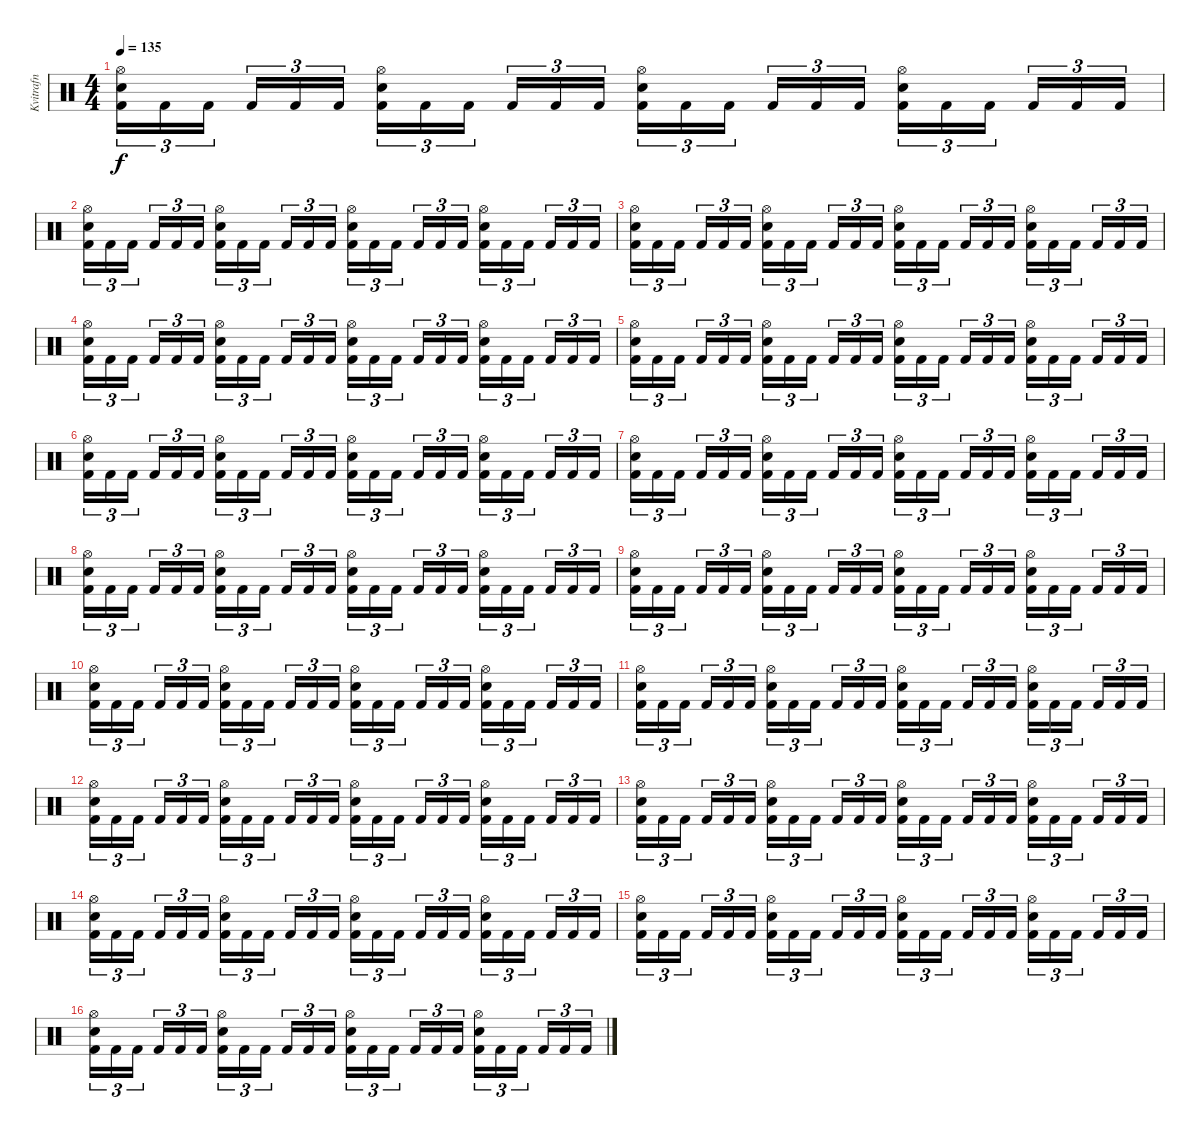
\track ("Kvitrafn" "Kvitrafn") {instrument percussion}
\staff {score}
\articulation defaults
\ts (4 4)
\tempo 135
\clef neutral
\ks c
("Hi-Hat (open)" "Electric Snare (hit)" "Kick (hit) 2").16{tu (3 2) dy f} "Kick (hit) 2".16{tu (3 2)} "Kick (hit) 2".16{tu (3 2) beam splitsecondary} "Kick (hit) 2".16{tu (3 2)} "Kick (hit) 2".16{tu (3 2)} "Kick (hit) 2".16{tu (3 2)} ("Hi-Hat (open)" "Electric Snare (hit)" "Kick (hit) 2").16{tu (3 2)} "Kick (hit) 2".16{tu (3 2)} "Kick (hit) 2".16{tu (3 2) beam splitsecondary} "Kick (hit) 2".16{tu (3 2)} "Kick (hit) 2".16{tu (3 2)} "Kick (hit) 2".16{tu (3 2)} ("Hi-Hat (open)" "Electric Snare (hit)" "Kick (hit) 2").16{tu (3 2)} "Kick (hit) 2".16{tu (3 2)} "Kick (hit) 2".16{tu (3 2) beam splitsecondary} "Kick (hit) 2".16{tu (3 2)} "Kick (hit) 2".16{tu (3 2)} "Kick (hit) 2".16{tu (3 2)} ("Hi-Hat (open)" "Electric Snare (hit)" "Kick (hit) 2").16{tu (3 2)} "Kick (hit) 2".16{tu (3 2)} "Kick (hit) 2".16{tu (3 2) beam splitsecondary} "Kick (hit) 2".16{tu (3 2)} "Kick (hit) 2".16{tu (3 2)} "Kick (hit) 2".16{tu (3 2)} |
("Hi-Hat (open)" "Electric Snare (hit)" "Kick (hit) 2").16{tu (3 2)} "Kick (hit) 2".16{tu (3 2)} "Kick (hit) 2".16{tu (3 2) beam splitsecondary} "Kick (hit) 2".16{tu (3 2)} "Kick (hit) 2".16{tu (3 2)} "Kick (hit) 2".16{tu (3 2)} ("Hi-Hat (open)" "Electric Snare (hit)" "Kick (hit) 2").16{tu (3 2)} "Kick (hit) 2".16{tu (3 2)} "Kick (hit) 2".16{tu (3 2) beam splitsecondary} "Kick (hit) 2".16{tu (3 2)} "Kick (hit) 2".16{tu (3 2)} "Kick (hit) 2".16{tu (3 2)} ("Hi-Hat (open)" "Electric Snare (hit)" "Kick (hit) 2").16{tu (3 2)} "Kick (hit) 2".16{tu (3 2)} "Kick (hit) 2".16{tu (3 2) beam splitsecondary} "Kick (hit) 2".16{tu (3 2)} "Kick (hit) 2".16{tu (3 2)} "Kick (hit) 2".16{tu (3 2)} ("Hi-Hat (open)" "Electric Snare (hit)" "Kick (hit) 2").16{tu (3 2)} "Kick (hit) 2".16{tu (3 2)} "Kick (hit) 2".16{tu (3 2) beam splitsecondary} "Kick (hit) 2".16{tu (3 2)} "Kick (hit) 2".16{tu (3 2)} "Kick (hit) 2".16{tu (3 2)} |
("Hi-Hat (open)" "Electric Snare (hit)" "Kick (hit) 2").16{tu (3 2)} "Kick (hit) 2".16{tu (3 2)} "Kick (hit) 2".16{tu (3 2) beam splitsecondary} "Kick (hit) 2".16{tu (3 2)} "Kick (hit) 2".16{tu (3 2)} "Kick (hit) 2".16{tu (3 2)} ("Hi-Hat (open)" "Electric Snare (hit)" "Kick (hit) 2").16{tu (3 2)} "Kick (hit) 2".16{tu (3 2)} "Kick (hit) 2".16{tu (3 2) beam splitsecondary} "Kick (hit) 2".16{tu (3 2)} "Kick (hit) 2".16{tu (3 2)} "Kick (hit) 2".16{tu (3 2)} ("Hi-Hat (open)" "Electric Snare (hit)" "Kick (hit) 2").16{tu (3 2)} "Kick (hit) 2".16{tu (3 2)} "Kick (hit) 2".16{tu (3 2) beam splitsecondary} "Kick (hit) 2".16{tu (3 2)} "Kick (hit) 2".16{tu (3 2)} "Kick (hit) 2".16{tu (3 2)} ("Hi-Hat (open)" "Electric Snare (hit)" "Kick (hit) 2").16{tu (3 2)} "Kick (hit) 2".16{tu (3 2)} "Kick (hit) 2".16{tu (3 2) beam splitsecondary} "Kick (hit) 2".16{tu (3 2)} "Kick (hit) 2".16{tu (3 2)} "Kick (hit) 2".16{tu (3 2)} |
("Hi-Hat (open)" "Electric Snare (hit)" "Kick (hit) 2").16{tu (3 2)} "Kick (hit) 2".16{tu (3 2)} "Kick (hit) 2".16{tu (3 2) beam splitsecondary} "Kick (hit) 2".16{tu (3 2)} "Kick (hit) 2".16{tu (3 2)} "Kick (hit) 2".16{tu (3 2)} ("Hi-Hat (open)" "Electric Snare (hit)" "Kick (hit) 2").16{tu (3 2)} "Kick (hit) 2".16{tu (3 2)} "Kick (hit) 2".16{tu (3 2) beam splitsecondary} "Kick (hit) 2".16{tu (3 2)} "Kick (hit) 2".16{tu (3 2)} "Kick (hit) 2".16{tu (3 2)} ("Hi-Hat (open)" "Electric Snare (hit)" "Kick (hit) 2").16{tu (3 2)} "Kick (hit) 2".16{tu (3 2)} "Kick (hit) 2".16{tu (3 2) beam splitsecondary} "Kick (hit) 2".16{tu (3 2)} "Kick (hit) 2".16{tu (3 2)} "Kick (hit) 2".16{tu (3 2)} ("Hi-Hat (open)" "Electric Snare (hit)" "Kick (hit) 2").16{tu (3 2)} "Kick (hit) 2".16{tu (3 2)} "Kick (hit) 2".16{tu (3 2) beam splitsecondary} "Kick (hit) 2".16{tu (3 2)} "Kick (hit) 2".16{tu (3 2)} "Kick (hit) 2".16{tu (3 2)} |
("Hi-Hat (open)" "Electric Snare (hit)" "Kick (hit) 2").16{tu (3 2)} "Kick (hit) 2".16{tu (3 2)} "Kick (hit) 2".16{tu (3 2) beam splitsecondary} "Kick (hit) 2".16{tu (3 2)} "Kick (hit) 2".16{tu (3 2)} "Kick (hit) 2".16{tu (3 2)} ("Hi-Hat (open)" "Electric Snare (hit)" "Kick (hit) 2").16{tu (3 2)} "Kick (hit) 2".16{tu (3 2)} "Kick (hit) 2".16{tu (3 2) beam splitsecondary} "Kick (hit) 2".16{tu (3 2)} "Kick (hit) 2".16{tu (3 2)} "Kick (hit) 2".16{tu (3 2)} ("Hi-Hat (open)" "Electric Snare (hit)" "Kick (hit) 2").16{tu (3 2)} "Kick (hit) 2".16{tu (3 2)} "Kick (hit) 2".16{tu (3 2) beam splitsecondary} "Kick (hit) 2".16{tu (3 2)} "Kick (hit) 2".16{tu (3 2)} "Kick (hit) 2".16{tu (3 2)} ("Hi-Hat (open)" "Electric Snare (hit)" "Kick (hit) 2").16{tu (3 2)} "Kick (hit) 2".16{tu (3 2)} "Kick (hit) 2".16{tu (3 2) beam splitsecondary} "Kick (hit) 2".16{tu (3 2)} "Kick (hit) 2".16{tu (3 2)} "Kick (hit) 2".16{tu (3 2)} |
("Hi-Hat (open)" "Electric Snare (hit)" "Kick (hit) 2").16{tu (3 2)} "Kick (hit) 2".16{tu (3 2)} "Kick (hit) 2".16{tu (3 2) beam splitsecondary} "Kick (hit) 2".16{tu (3 2)} "Kick (hit) 2".16{tu (3 2)} "Kick (hit) 2".16{tu (3 2)} ("Hi-Hat (open)" "Electric Snare (hit)" "Kick (hit) 2").16{tu (3 2)} "Kick (hit) 2".16{tu (3 2)} "Kick (hit) 2".16{tu (3 2) beam splitsecondary} "Kick (hit) 2".16{tu (3 2)} "Kick (hit) 2".16{tu (3 2)} "Kick (hit) 2".16{tu (3 2)} ("Hi-Hat (open)" "Electric Snare (hit)" "Kick (hit) 2").16{tu (3 2)} "Kick (hit) 2".16{tu (3 2)} "Kick (hit) 2".16{tu (3 2) beam splitsecondary} "Kick (hit) 2".16{tu (3 2)} "Kick (hit) 2".16{tu (3 2)} "Kick (hit) 2".16{tu (3 2)} ("Hi-Hat (open)" "Electric Snare (hit)" "Kick (hit) 2").16{tu (3 2)} "Kick (hit) 2".16{tu (3 2)} "Kick (hit) 2".16{tu (3 2) beam splitsecondary} "Kick (hit) 2".16{tu (3 2)} "Kick (hit) 2".16{tu (3 2)} "Kick (hit) 2".16{tu (3 2)} |
("Hi-Hat (open)" "Electric Snare (hit)" "Kick (hit) 2").16{tu (3 2)} "Kick (hit) 2".16{tu (3 2)} "Kick (hit) 2".16{tu (3 2) beam splitsecondary} "Kick (hit) 2".16{tu (3 2)} "Kick (hit) 2".16{tu (3 2)} "Kick (hit) 2".16{tu (3 2)} ("Hi-Hat (open)" "Electric Snare (hit)" "Kick (hit) 2").16{tu (3 2)} "Kick (hit) 2".16{tu (3 2)} "Kick (hit) 2".16{tu (3 2) beam splitsecondary} "Kick (hit) 2".16{tu (3 2)} "Kick (hit) 2".16{tu (3 2)} "Kick (hit) 2".16{tu (3 2)} ("Hi-Hat (open)" "Electric Snare (hit)" "Kick (hit) 2").16{tu (3 2)} "Kick (hit) 2".16{tu (3 2)} "Kick (hit) 2".16{tu (3 2) beam splitsecondary} "Kick (hit) 2".16{tu (3 2)} "Kick (hit) 2".16{tu (3 2)} "Kick (hit) 2".16{tu (3 2)} ("Hi-Hat (open)" "Electric Snare (hit)" "Kick (hit) 2").16{tu (3 2)} "Kick (hit) 2".16{tu (3 2)} "Kick (hit) 2".16{tu (3 2) beam splitsecondary} "Kick (hit) 2".16{tu (3 2)} "Kick (hit) 2".16{tu (3 2)} "Kick (hit) 2".16{tu (3 2)} |
("Hi-Hat (open)" "Electric Snare (hit)" "Kick (hit) 2").16{tu (3 2)} "Kick (hit) 2".16{tu (3 2)} "Kick (hit) 2".16{tu (3 2) beam splitsecondary} "Kick (hit) 2".16{tu (3 2)} "Kick (hit) 2".16{tu (3 2)} "Kick (hit) 2".16{tu (3 2)} ("Hi-Hat (open)" "Electric Snare (hit)" "Kick (hit) 2").16{tu (3 2)} "Kick (hit) 2".16{tu (3 2)} "Kick (hit) 2".16{tu (3 2) beam splitsecondary} "Kick (hit) 2".16{tu (3 2)} "Kick (hit) 2".16{tu (3 2)} "Kick (hit) 2".16{tu (3 2)} ("Hi-Hat (open)" "Electric Snare (hit)" "Kick (hit) 2").16{tu (3 2)} "Kick (hit) 2".16{tu (3 2)} "Kick (hit) 2".16{tu (3 2) beam splitsecondary} "Kick (hit) 2".16{tu (3 2)} "Kick (hit) 2".16{tu (3 2)} "Kick (hit) 2".16{tu (3 2)} ("Hi-Hat (open)" "Electric Snare (hit)" "Kick (hit) 2").16{tu (3 2)} "Kick (hit) 2".16{tu (3 2)} "Kick (hit) 2".16{tu (3 2) beam splitsecondary} "Kick (hit) 2".16{tu (3 2)} "Kick (hit) 2".16{tu (3 2)} "Kick (hit) 2".16{tu (3 2)} |
("Hi-Hat (open)" "Electric Snare (hit)" "Kick (hit) 2").16{tu (3 2)} "Kick (hit) 2".16{tu (3 2)} "Kick (hit) 2".16{tu (3 2) beam splitsecondary} "Kick (hit) 2".16{tu (3 2)} "Kick (hit) 2".16{tu (3 2)} "Kick (hit) 2".16{tu (3 2)} ("Hi-Hat (open)" "Electric Snare (hit)" "Kick (hit) 2").16{tu (3 2)} "Kick (hit) 2".16{tu (3 2)} "Kick (hit) 2".16{tu (3 2) beam splitsecondary} "Kick (hit) 2".16{tu (3 2)} "Kick (hit) 2".16{tu (3 2)} "Kick (hit) 2".16{tu (3 2)} ("Hi-Hat (open)" "Electric Snare (hit)" "Kick (hit) 2").16{tu (3 2)} "Kick (hit) 2".16{tu (3 2)} "Kick (hit) 2".16{tu (3 2) beam splitsecondary} "Kick (hit) 2".16{tu (3 2)} "Kick (hit) 2".16{tu (3 2)} "Kick (hit) 2".16{tu (3 2)} ("Hi-Hat (open)" "Electric Snare (hit)" "Kick (hit) 2").16{tu (3 2)} "Kick (hit) 2".16{tu (3 2)} "Kick (hit) 2".16{tu (3 2) beam splitsecondary} "Kick (hit) 2".16{tu (3 2)} "Kick (hit) 2".16{tu (3 2)} "Kick (hit) 2".16{tu (3 2)} |
("Hi-Hat (open)" "Electric Snare (hit)" "Kick (hit) 2").16{tu (3 2)} "Kick (hit) 2".16{tu (3 2)} "Kick (hit) 2".16{tu (3 2) beam splitsecondary} "Kick (hit) 2".16{tu (3 2)} "Kick (hit) 2".16{tu (3 2)} "Kick (hit) 2".16{tu (3 2)} ("Hi-Hat (open)" "Electric Snare (hit)" "Kick (hit) 2").16{tu (3 2)} "Kick (hit) 2".16{tu (3 2)} "Kick (hit) 2".16{tu (3 2) beam splitsecondary} "Kick (hit) 2".16{tu (3 2)} "Kick (hit) 2".16{tu (3 2)} "Kick (hit) 2".16{tu (3 2)} ("Hi-Hat (open)" "Electric Snare (hit)" "Kick (hit) 2").16{tu (3 2)} "Kick (hit) 2".16{tu (3 2)} "Kick (hit) 2".16{tu (3 2) beam splitsecondary} "Kick (hit) 2".16{tu (3 2)} "Kick (hit) 2".16{tu (3 2)} "Kick (hit) 2".16{tu (3 2)} ("Hi-Hat (open)" "Electric Snare (hit)" "Kick (hit) 2").16{tu (3 2)} "Kick (hit) 2".16{tu (3 2)} "Kick (hit) 2".16{tu (3 2) beam splitsecondary} "Kick (hit) 2".16{tu (3 2)} "Kick (hit) 2".16{tu (3 2)} "Kick (hit) 2".16{tu (3 2)} |
("Hi-Hat (open)" "Electric Snare (hit)" "Kick (hit) 2").16{tu (3 2)} "Kick (hit) 2".16{tu (3 2)} "Kick (hit) 2".16{tu (3 2) beam splitsecondary} "Kick (hit) 2".16{tu (3 2)} "Kick (hit) 2".16{tu (3 2)} "Kick (hit) 2".16{tu (3 2)} ("Hi-Hat (open)" "Electric Snare (hit)" "Kick (hit) 2").16{tu (3 2)} "Kick (hit) 2".16{tu (3 2)} "Kick (hit) 2".16{tu (3 2) beam splitsecondary} "Kick (hit) 2".16{tu (3 2)} "Kick (hit) 2".16{tu (3 2)} "Kick (hit) 2".16{tu (3 2)} ("Hi-Hat (open)" "Electric Snare (hit)" "Kick (hit) 2").16{tu (3 2)} "Kick (hit) 2".16{tu (3 2)} "Kick (hit) 2".16{tu (3 2) beam splitsecondary} "Kick (hit) 2".16{tu (3 2)} "Kick (hit) 2".16{tu (3 2)} "Kick (hit) 2".16{tu (3 2)} ("Hi-Hat (open)" "Electric Snare (hit)" "Kick (hit) 2").16{tu (3 2)} "Kick (hit) 2".16{tu (3 2)} "Kick (hit) 2".16{tu (3 2) beam splitsecondary} "Kick (hit) 2".16{tu (3 2)} "Kick (hit) 2".16{tu (3 2)} "Kick (hit) 2".16{tu (3 2)} |
("Hi-Hat (open)" "Electric Snare (hit)" "Kick (hit) 2").16{tu (3 2)} "Kick (hit) 2".16{tu (3 2)} "Kick (hit) 2".16{tu (3 2) beam splitsecondary} "Kick (hit) 2".16{tu (3 2)} "Kick (hit) 2".16{tu (3 2)} "Kick (hit) 2".16{tu (3 2)} ("Hi-Hat (open)" "Electric Snare (hit)" "Kick (hit) 2").16{tu (3 2)} "Kick (hit) 2".16{tu (3 2)} "Kick (hit) 2".16{tu (3 2) beam splitsecondary} "Kick (hit) 2".16{tu (3 2)} "Kick (hit) 2".16{tu (3 2)} "Kick (hit) 2".16{tu (3 2)} ("Hi-Hat (open)" "Electric Snare (hit)" "Kick (hit) 2").16{tu (3 2)} "Kick (hit) 2".16{tu (3 2)} "Kick (hit) 2".16{tu (3 2) beam splitsecondary} "Kick (hit) 2".16{tu (3 2)} "Kick (hit) 2".16{tu (3 2)} "Kick (hit) 2".16{tu (3 2)} ("Hi-Hat (open)" "Electric Snare (hit)" "Kick (hit) 2").16{tu (3 2)} "Kick (hit) 2".16{tu (3 2)} "Kick (hit) 2".16{tu (3 2) beam splitsecondary} "Kick (hit) 2".16{tu (3 2)} "Kick (hit) 2".16{tu (3 2)} "Kick (hit) 2".16{tu (3 2)} |
("Hi-Hat (open)" "Electric Snare (hit)" "Kick (hit) 2").16{tu (3 2)} "Kick (hit) 2".16{tu (3 2)} "Kick (hit) 2".16{tu (3 2) beam splitsecondary} "Kick (hit) 2".16{tu (3 2)} "Kick (hit) 2".16{tu (3 2)} "Kick (hit) 2".16{tu (3 2)} ("Hi-Hat (open)" "Electric Snare (hit)" "Kick (hit) 2").16{tu (3 2)} "Kick (hit) 2".16{tu (3 2)} "Kick (hit) 2".16{tu (3 2) beam splitsecondary} "Kick (hit) 2".16{tu (3 2)} "Kick (hit) 2".16{tu (3 2)} "Kick (hit) 2".16{tu (3 2)} ("Hi-Hat (open)" "Electric Snare (hit)" "Kick (hit) 2").16{tu (3 2)} "Kick (hit) 2".16{tu (3 2)} "Kick (hit) 2".16{tu (3 2) beam splitsecondary} "Kick (hit) 2".16{tu (3 2)} "Kick (hit) 2".16{tu (3 2)} "Kick (hit) 2".16{tu (3 2)} ("Hi-Hat (open)" "Electric Snare (hit)" "Kick (hit) 2").16{tu (3 2)} "Kick (hit) 2".16{tu (3 2)} "Kick (hit) 2".16{tu (3 2) beam splitsecondary} "Kick (hit) 2".16{tu (3 2)} "Kick (hit) 2".16{tu (3 2)} "Kick (hit) 2".16{tu (3 2)} |
("Hi-Hat (open)" "Electric Snare (hit)" "Kick (hit) 2").16{tu (3 2)} "Kick (hit) 2".16{tu (3 2)} "Kick (hit) 2".16{tu (3 2) beam splitsecondary} "Kick (hit) 2".16{tu (3 2)} "Kick (hit) 2".16{tu (3 2)} "Kick (hit) 2".16{tu (3 2)} ("Hi-Hat (open)" "Electric Snare (hit)" "Kick (hit) 2").16{tu (3 2)} "Kick (hit) 2".16{tu (3 2)} "Kick (hit) 2".16{tu (3 2) beam splitsecondary} "Kick (hit) 2".16{tu (3 2)} "Kick (hit) 2".16{tu (3 2)} "Kick (hit) 2".16{tu (3 2)} ("Hi-Hat (open)" "Electric Snare (hit)" "Kick (hit) 2").16{tu (3 2)} "Kick (hit) 2".16{tu (3 2)} "Kick (hit) 2".16{tu (3 2) beam splitsecondary} "Kick (hit) 2".16{tu (3 2)} "Kick (hit) 2".16{tu (3 2)} "Kick (hit) 2".16{tu (3 2)} ("Hi-Hat (open)" "Electric Snare (hit)" "Kick (hit) 2").16{tu (3 2)} "Kick (hit) 2".16{tu (3 2)} "Kick (hit) 2".16{tu (3 2) beam splitsecondary} "Kick (hit) 2".16{tu (3 2)} "Kick (hit) 2".16{tu (3 2)} "Kick (hit) 2".16{tu (3 2)} |
("Hi-Hat (open)" "Electric Snare (hit)" "Kick (hit) 2").16{tu (3 2)} "Kick (hit) 2".16{tu (3 2)} "Kick (hit) 2".16{tu (3 2) beam splitsecondary} "Kick (hit) 2".16{tu (3 2)} "Kick (hit) 2".16{tu (3 2)} "Kick (hit) 2".16{tu (3 2)} ("Hi-Hat (open)" "Electric Snare (hit)" "Kick (hit) 2").16{tu (3 2)} "Kick (hit) 2".16{tu (3 2)} "Kick (hit) 2".16{tu (3 2) beam splitsecondary} "Kick (hit) 2".16{tu (3 2)} "Kick (hit) 2".16{tu (3 2)} "Kick (hit) 2".16{tu (3 2)} ("Hi-Hat (open)" "Electric Snare (hit)" "Kick (hit) 2").16{tu (3 2)} "Kick (hit) 2".16{tu (3 2)} "Kick (hit) 2".16{tu (3 2) beam splitsecondary} "Kick (hit) 2".16{tu (3 2)} "Kick (hit) 2".16{tu (3 2)} "Kick (hit) 2".16{tu (3 2)} ("Hi-Hat (open)" "Electric Snare (hit)" "Kick (hit) 2").16{tu (3 2)} "Kick (hit) 2".16{tu (3 2)} "Kick (hit) 2".16{tu (3 2) beam splitsecondary} "Kick (hit) 2".16{tu (3 2)} "Kick (hit) 2".16{tu (3 2)} "Kick (hit) 2".16{tu (3 2)} |
("Hi-Hat (open)" "Electric Snare (hit)" "Kick (hit) 2").16{tu (3 2)} "Kick (hit) 2".16{tu (3 2)} "Kick (hit) 2".16{tu (3 2) beam splitsecondary} "Kick (hit) 2".16{tu (3 2)} "Kick (hit) 2".16{tu (3 2)} "Kick (hit) 2".16{tu (3 2)} ("Hi-Hat (open)" "Electric Snare (hit)" "Kick (hit) 2").16{tu (3 2)} "Kick (hit) 2".16{tu (3 2)} "Kick (hit) 2".16{tu (3 2) beam splitsecondary} "Kick (hit) 2".16{tu (3 2)} "Kick (hit) 2".16{tu (3 2)} "Kick (hit) 2".16{tu (3 2)} ("Hi-Hat (open)" "Electric Snare (hit)" "Kick (hit) 2").16{tu (3 2)} "Kick (hit) 2".16{tu (3 2)} "Kick (hit) 2".16{tu (3 2) beam splitsecondary} "Kick (hit) 2".16{tu (3 2)} "Kick (hit) 2".16{tu (3 2)} "Kick (hit) 2".16{tu (3 2)} ("Hi-Hat (open)" "Electric Snare (hit)" "Kick (hit) 2").16{tu (3 2)} "Kick (hit) 2".16{tu (3 2)} "Kick (hit) 2".16{tu (3 2) beam splitsecondary} "Kick (hit) 2".16{tu (3 2)} "Kick (hit) 2".16{tu (3 2)} "Kick (hit) 2".16{tu (3 2)}
